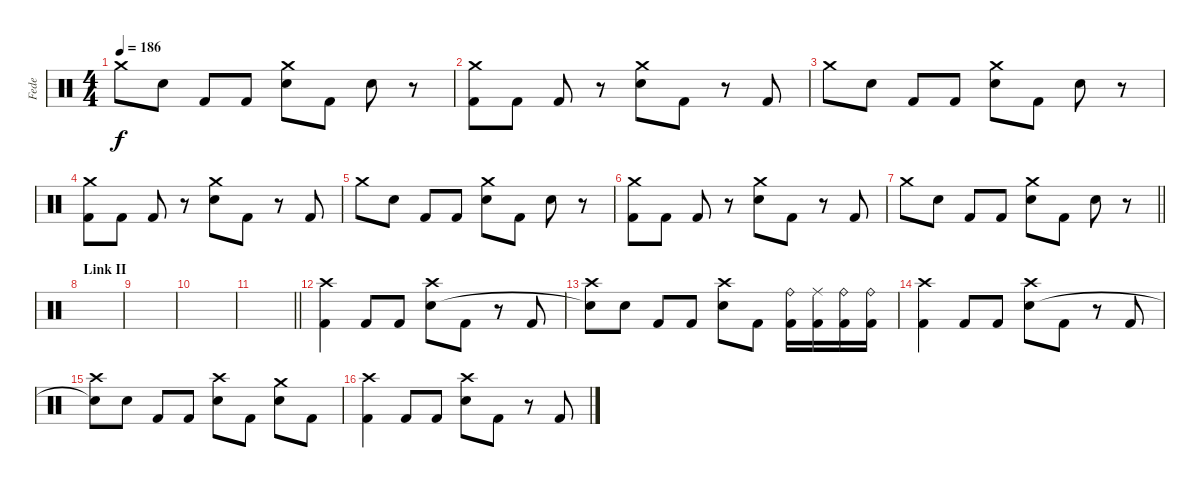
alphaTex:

\track ("Fede" "Fede") {instrument percussion}
\staff {score}
\articulation defaults
\ts (4 4)
\tempo 186
\clef neutral
\ks c "Crash medium (hit)".8{dy f} "Snare (hit) 2".8 "Kick (hit) 2".8 "Kick (hit) 2".8
("Crash medium (hit)" "Snare (hit) 2").8 "Kick (hit) 2".8 "Snare (hit) 2".8 r.8 |
("Crash medium (hit)" "Kick (hit) 2").8 "Kick (hit) 2".8 "Kick (hit) 2".8 r.8 ("Crash medium (hit)" "Snare (hit) 2").8 "Kick (hit) 2".8 r.8 "Kick (hit) 2".8 |
"Crash medium (hit)".8 "Snare (hit) 2".8 "Kick (hit) 2".8 "Kick (hit) 2".8 ("Crash medium (hit)" "Snare (hit) 2").8 "Kick (hit) 2".8 "Snare (hit) 2".8 r.8 |
("Crash medium (hit)" "Kick (hit) 2").8 "Kick (hit) 2".8 "Kick (hit) 2".8 r.8 ("Crash medium (hit)" "Snare (hit) 2").8 "Kick (hit) 2".8 r.8 "Kick (hit) 2".8 |
"Crash medium (hit)".8 "Snare (hit) 2".8 "Kick (hit) 2".8 "Kick (hit) 2".8 ("Crash medium (hit)" "Snare (hit) 2").8 "Kick (hit) 2".8 "Snare (hit) 2".8 r.8 |
("Crash medium (hit)" "Kick (hit) 2").8 "Kick (hit) 2".8 "Kick (hit) 2".8 r.8 ("Crash medium (hit)" "Snare (hit) 2").8 "Kick (hit) 2".8 r.8 "Kick (hit) 2".8 |
\barLineRight lightlight "Crash medium (hit)".8 "Snare (hit) 2".8 "Kick (hit) 2".8 "Kick (hit) 2".8
("Crash medium (hit)" "Snare (hit) 2").8 "Kick (hit) 2".8 "Snare (hit) 2".8 r.8 |
\section ("" "Link II")
|
|
|
\barLineRight lightlight
|
("Crash high (hit)" "Kick (hit) 2").4 "Kick (hit) 2".8 "Kick (hit) 2".8 ("Crash high (hit)" "Snare (hit) 2").8 "Kick (hit) 2".8 r.8 "Kick (hit) 2".8 |
("Crash high (hit)" "Snare (hit)"{t}).8 "Snare (hit) 2".8 "Kick (hit) 2".8 "Kick (hit) 2".8 ("Crash high (hit)" "Snare (hit) 2").8 "Kick (hit) 2".8 ("Ride (bell)" "Kick (hit) 2").16 ("Ride (middle)" "Kick (hit) 2").16 ("Ride (bell)" "Kick (hit) 2").16 ("Ride (bell)" "Kick (hit) 2").16 |
("Crash high (hit)" "Kick (hit) 2").4 "Kick (hit) 2".8 "Kick (hit) 2".8 ("Crash high (hit)" "Snare (hit) 2").8 "Kick (hit) 2".8 r.8 "Kick (hit) 2".8 |
("Crash high (hit)" "Snare (hit)"{t}).8 "Snare (hit) 2".8 "Kick (hit) 2".8 "Kick (hit) 2".8 ("Crash high (hit)" "Snare (hit) 2").8 "Kick (hit) 2".8 ("Crash medium (hit)" "Snare (hit) 2").8 "Kick (hit) 2".8 |
("Crash high (hit)" "Kick (hit) 2").4 "Kick (hit) 2".8 "Kick (hit) 2".8 ("Crash high (hit)" "Snare (hit) 2").8 "Kick (hit) 2".8 r.8 "Kick (hit) 2".8
